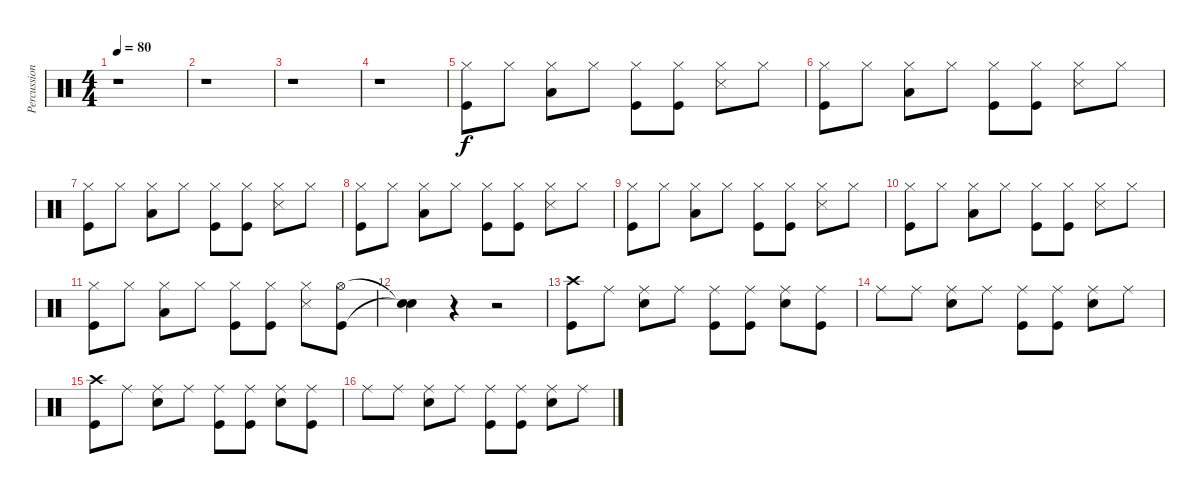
\track ("Percussions" "Percussion") {instrument percussion}
\staff {score}
\articulation defaults
\ts (4 4)
\tempo 80
\clef neutral
\ks c
r.1{dy f} |
r.1 |
r.1 |
r.1 |
("Hi-Hat (closed)" "Kick (hit)").8 "Hi-Hat (closed)".8 ("Hi-Hat (closed)" "Low Tom (hit)").8 "Hi-Hat (closed)".8 ("Hi-Hat (closed)" "Kick (hit)").8 ("Hi-Hat (closed)" "Kick (hit)").8 ("Hi-Hat (closed)" "Snare (side stick) 3").8 "Hi-Hat (closed)".8 |
("Hi-Hat (closed)" "Kick (hit)").8 "Hi-Hat (closed)".8 ("Hi-Hat (closed)" "Low Tom (hit)").8 "Hi-Hat (closed)".8 ("Hi-Hat (closed)" "Kick (hit)").8 ("Hi-Hat (closed)" "Kick (hit)").8 ("Hi-Hat (closed)" "Snare (side stick) 3").8 "Hi-Hat (closed)".8 |
("Hi-Hat (closed)" "Kick (hit)").8 "Hi-Hat (closed)".8 ("Hi-Hat (closed)" "Low Tom (hit)").8 "Hi-Hat (closed)".8 ("Hi-Hat (closed)" "Kick (hit)").8 ("Hi-Hat (closed)" "Kick (hit)").8 ("Hi-Hat (closed)" "Snare (side stick) 3").8 "Hi-Hat (closed)".8 |
("Hi-Hat (closed)" "Kick (hit)").8 "Hi-Hat (closed)".8 ("Hi-Hat (closed)" "Low Tom (hit)").8 "Hi-Hat (closed)".8 ("Hi-Hat (closed)" "Kick (hit)").8 ("Hi-Hat (closed)" "Kick (hit)").8 ("Hi-Hat (closed)" "Snare (side stick) 3").8 "Hi-Hat (closed)".8 |
("Hi-Hat (closed)" "Kick (hit)").8 "Hi-Hat (closed)".8 ("Hi-Hat (closed)" "Low Tom (hit)").8 "Hi-Hat (closed)".8 ("Hi-Hat (closed)" "Kick (hit)").8 ("Hi-Hat (closed)" "Kick (hit)").8 ("Hi-Hat (closed)" "Snare (side stick) 3").8 "Hi-Hat (closed)".8 |
("Hi-Hat (closed)" "Kick (hit)").8 "Hi-Hat (closed)".8 ("Hi-Hat (closed)" "Low Tom (hit)").8 "Hi-Hat (closed)".8 ("Hi-Hat (closed)" "Kick (hit)").8 ("Hi-Hat (closed)" "Kick (hit)").8 ("Hi-Hat (closed)" "Snare (side stick) 3").8 "Hi-Hat (closed)".8 |
("Hi-Hat (closed)" "Kick (hit)").8 "Hi-Hat (closed)".8 ("Hi-Hat (closed)" "Low Tom (hit)").8 "Hi-Hat (closed)".8 ("Hi-Hat (closed)" "Kick (hit)").8 ("Hi-Hat (closed)" "Kick (hit)").8 ("Hi-Hat (closed)" "Snare (side stick) 3").8 ("Hi-Hat (open)" "Kick (hit)").8 |
("Snare (hit)"{t} "Snare (hit)"{t}).4 r.4 r.2 |
("Crash high (hit)" "Kick (hit)").8 "Ride (middle)".8 ("Ride (middle)" "Snare (hit) 2").8 "Ride (middle)".8 ("Ride (middle)" "Kick (hit)").8 ("Ride (middle)" "Kick (hit)").8 ("Ride (middle)" "Snare (hit) 2").8 ("Ride (middle)" "Kick (hit)").8 |
"Ride (middle)".8 "Ride (middle)".8 ("Ride (middle)" "Snare (hit) 2").8 "Ride (middle)".8 ("Ride (middle)" "Kick (hit)").8 ("Ride (middle)" "Kick (hit)").8 ("Ride (middle)" "Snare (hit) 2").8 "Ride (middle)".8 |
("Crash high (hit)" "Kick (hit)").8 "Ride (middle)".8 ("Ride (middle)" "Snare (hit) 2").8 "Ride (middle)".8 ("Ride (middle)" "Kick (hit)").8 ("Ride (middle)" "Kick (hit)").8 ("Ride (middle)" "Snare (hit) 2").8 ("Ride (middle)" "Kick (hit)").8 |
"Ride (middle)".8 "Ride (middle)".8 ("Ride (middle)" "Snare (hit) 2").8 "Ride (middle)".8 ("Ride (middle)" "Kick (hit)").8 ("Ride (middle)" "Kick (hit)").8 ("Ride (middle)" "Snare (hit) 2").8 "Ride (middle)".8
